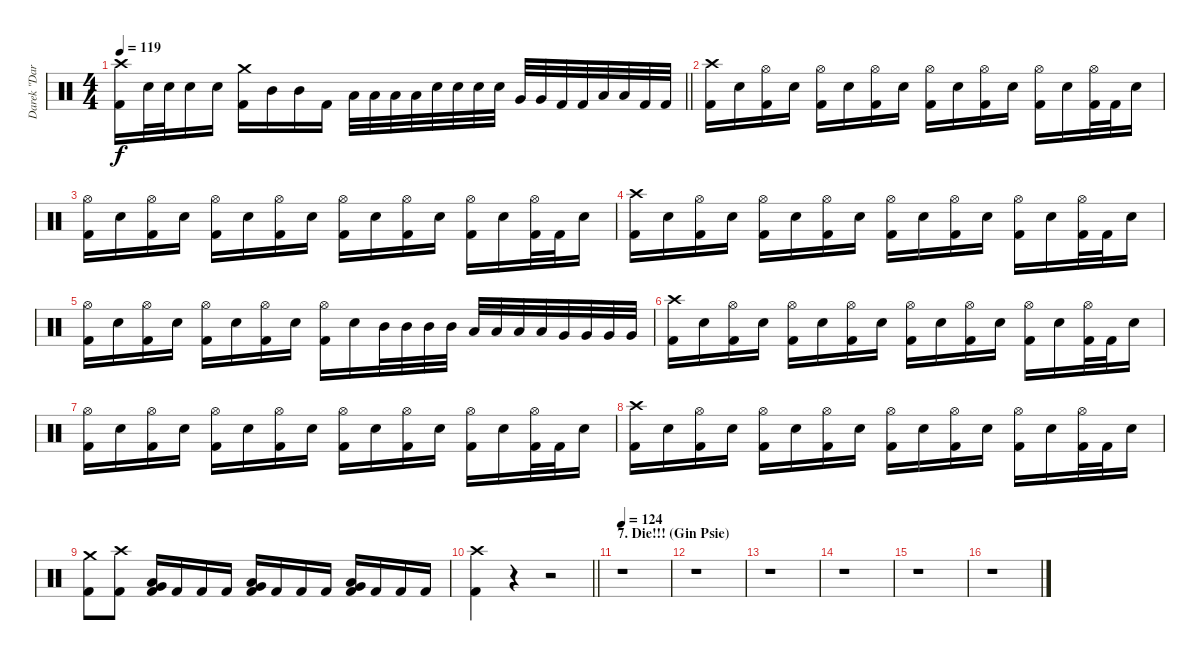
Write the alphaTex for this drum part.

\track ("Darek \"Daray\" Brzozowski " "Darek \"Dar") {instrument percussion}
\staff {score}
\articulation defaults
\ts (4 4)
\tempo 119
\clef neutral
\barLineRight lightlight
\ks c
("Crash high (hit)" "Kick (hit) 2").16{dy f} "Electric Snare (hit)".32 "Electric Snare (hit)".32 "Electric Snare (hit)".16 "Electric Snare (hit)".16 ("Crash medium (hit)" "Kick (hit) 2").16 "Mid Tom (hit)".16 "Mid Tom (hit)".16 "Kick (hit) 2".16 "Low Tom (hit)".32 "Low Tom (hit)".32 "Low Tom (hit)".32 "Low Tom (hit)".32 "Electric Snare (hit)".32 "Electric Snare (hit)".32 "Electric Snare (hit)".32 "Electric Snare (hit)".32 "Very Low Tom (hit)".32 "Very Low Tom (hit)".32 "Kick (hit) 2".32 "Kick (hit) 2".32 "Low Floor Tom (hit)".32 "Low Floor Tom (hit)".32 "Kick (hit) 2".32 "Kick (hit) 2".32 |
("Crash high (hit)" "Kick (hit) 2").16 "Electric Snare (hit)".16 ("Hi-Hat (open)" "Kick (hit) 2").16 "Electric Snare (hit)".16 ("Hi-Hat (open)" "Kick (hit) 2").16 "Electric Snare (hit)".16 ("Hi-Hat (open)" "Kick (hit) 2").16 "Electric Snare (hit)".16 ("Hi-Hat (open)" "Kick (hit) 2").16 "Electric Snare (hit)".16 ("Hi-Hat (open)" "Kick (hit) 2").16 "Electric Snare (hit)".16 ("Hi-Hat (open)" "Kick (hit) 2").16 "Electric Snare (hit)".16 ("Hi-Hat (open)" "Kick (hit) 2").32 "Kick (hit) 2".32 "Electric Snare (hit)".16 |
("Hi-Hat (open)" "Kick (hit) 2").16 "Electric Snare (hit)".16 ("Hi-Hat (open)" "Kick (hit) 2").16 "Electric Snare (hit)".16 ("Hi-Hat (open)" "Kick (hit) 2").16 "Electric Snare (hit)".16 ("Hi-Hat (open)" "Kick (hit) 2").16 "Electric Snare (hit)".16 ("Hi-Hat (open)" "Kick (hit) 2").16 "Electric Snare (hit)".16 ("Hi-Hat (open)" "Kick (hit) 2").16 "Electric Snare (hit)".16 ("Hi-Hat (open)" "Kick (hit) 2").16 "Electric Snare (hit)".16 ("Hi-Hat (open)" "Kick (hit) 2").32 "Kick (hit) 2".32 "Electric Snare (hit)".16 |
("Crash high (hit)" "Kick (hit) 2").16 "Electric Snare (hit)".16 ("Hi-Hat (open)" "Kick (hit) 2").16 "Electric Snare (hit)".16 ("Hi-Hat (open)" "Kick (hit) 2").16 "Electric Snare (hit)".16 ("Hi-Hat (open)" "Kick (hit) 2").16 "Electric Snare (hit)".16 ("Hi-Hat (open)" "Kick (hit) 2").16 "Electric Snare (hit)".16 ("Hi-Hat (open)" "Kick (hit) 2").16 "Electric Snare (hit)".16 ("Hi-Hat (open)" "Kick (hit) 2").16 "Electric Snare (hit)".16 ("Hi-Hat (open)" "Kick (hit) 2").32 "Kick (hit) 2".32 "Electric Snare (hit)".16 |
("Hi-Hat (open)" "Kick (hit) 2").16 "Electric Snare (hit)".16 ("Hi-Hat (open)" "Kick (hit) 2").16 "Electric Snare (hit)".16 ("Hi-Hat (open)" "Kick (hit) 2").16 "Electric Snare (hit)".16 ("Hi-Hat (open)" "Kick (hit) 2").16 "Electric Snare (hit)".16 ("Hi-Hat (open)" "Kick (hit) 2").16 "Electric Snare (hit)".16 "Mid Tom (hit)".32 "Mid Tom (hit)".32 "Mid Tom (hit)".32 "Mid Tom (hit)".32 "Low Tom (hit)".32 "Low Tom (hit)".32 "Low Tom (hit)".32 "Low Tom (hit)".32 "Very Low Tom (hit)".32 "Very Low Tom (hit)".32 "Very Low Tom (hit)".32 "Very Low Tom (hit)".32 |
("Crash high (hit)" "Kick (hit) 2").16 "Electric Snare (hit)".16 ("Hi-Hat (open)" "Kick (hit) 2").16 "Electric Snare (hit)".16 ("Hi-Hat (open)" "Kick (hit) 2").16 "Electric Snare (hit)".16 ("Hi-Hat (open)" "Kick (hit) 2").16 "Electric Snare (hit)".16 ("Hi-Hat (open)" "Kick (hit) 2").16 "Electric Snare (hit)".16 ("Hi-Hat (open)" "Kick (hit) 2").16 "Electric Snare (hit)".16 ("Hi-Hat (open)" "Kick (hit) 2").16 "Electric Snare (hit)".16 ("Hi-Hat (open)" "Kick (hit) 2").32 "Kick (hit) 2".32 "Electric Snare (hit)".16 |
("Hi-Hat (open)" "Kick (hit) 2").16 "Electric Snare (hit)".16 ("Hi-Hat (open)" "Kick (hit) 2").16 "Electric Snare (hit)".16 ("Hi-Hat (open)" "Kick (hit) 2").16 "Electric Snare (hit)".16 ("Hi-Hat (open)" "Kick (hit) 2").16 "Electric Snare (hit)".16 ("Hi-Hat (open)" "Kick (hit) 2").16 "Electric Snare (hit)".16 ("Hi-Hat (open)" "Kick (hit) 2").16 "Electric Snare (hit)".16 ("Hi-Hat (open)" "Kick (hit) 2").16 "Electric Snare (hit)".16 ("Hi-Hat (open)" "Kick (hit) 2").32 "Kick (hit) 2".32 "Electric Snare (hit)".16 |
("Crash high (hit)" "Kick (hit) 2").16 "Electric Snare (hit)".16 ("Hi-Hat (open)" "Kick (hit) 2").16 "Electric Snare (hit)".16 ("Hi-Hat (open)" "Kick (hit) 2").16 "Electric Snare (hit)".16 ("Hi-Hat (open)" "Kick (hit) 2").16 "Electric Snare (hit)".16 ("Hi-Hat (open)" "Kick (hit) 2").16 "Electric Snare (hit)".16 ("Hi-Hat (open)" "Kick (hit) 2").16 "Electric Snare (hit)".16 ("Hi-Hat (open)" "Kick (hit) 2").16 "Electric Snare (hit)".16 ("Hi-Hat (open)" "Kick (hit) 2").32 "Kick (hit) 2".32 "Electric Snare (hit)".16 |
("Crash medium (hit)" "Kick (hit) 2").8 ("Crash high (hit)" "Kick (hit) 2").8 ("Very Low Tom (hit)" "Low Floor Tom (hit)" "Kick (hit) 2").16 "Kick (hit) 2".16 "Kick (hit) 2".16 "Kick (hit) 2".16 ("Very Low Tom (hit)" "Low Floor Tom (hit)" "Kick (hit) 2").16 "Kick (hit) 2".16 "Kick (hit) 2".16 "Kick (hit) 2".16 ("Very Low Tom (hit)" "Low Floor Tom (hit)" "Kick (hit) 2").16 "Kick (hit) 2".16 "Kick (hit) 2".16 "Kick (hit) 2".16 |
\barLineRight lightlight
("Crash high (hit)" "Kick (hit) 2").4 r.4 r.2 |
\section ("" "7. Die!!! (Gin Psie)")
\tempo 124
r.1 |
r.1 |
r.1 |
r.1 |
r.1 |
r.1
